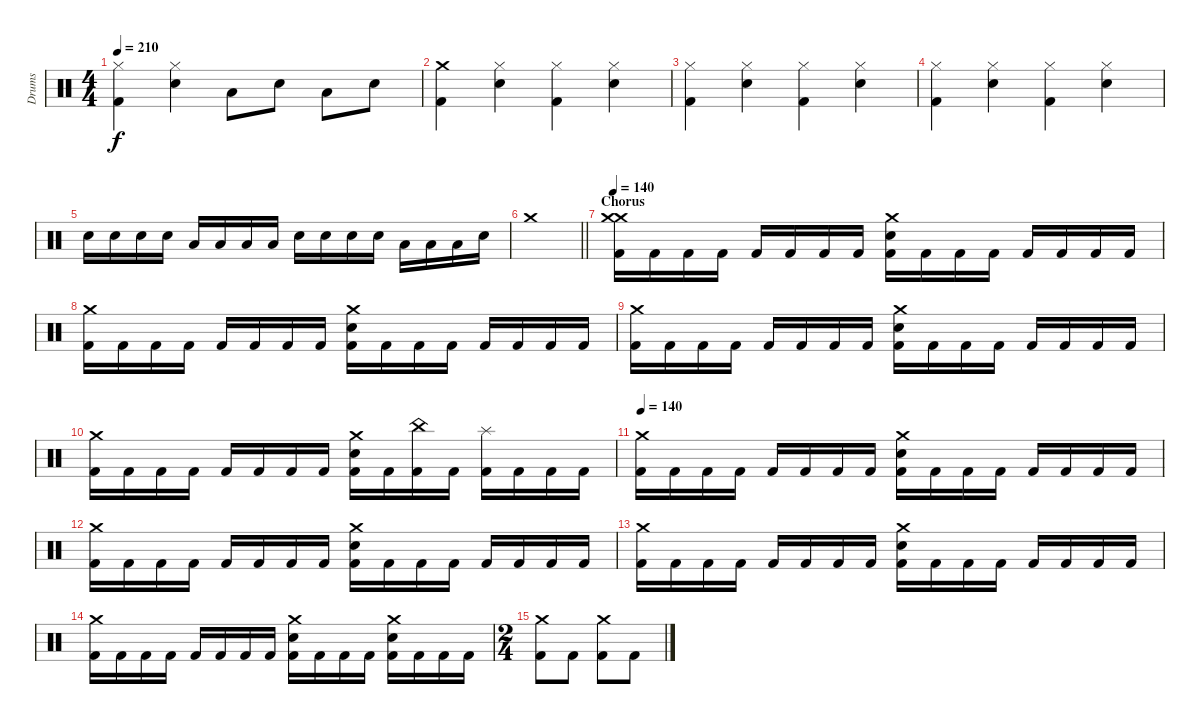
\track ("Drums" "Drums") {instrument percussion}
\staff {score}
\articulation defaults
\ts (4 4)
\tempo 210
\clef neutral
\ks c
("Hi-Hat (closed)" "Kick (hit) 2").4{dy f} ("Snare (hit) 2" "Hi-Hat (closed)").4 "Low Tom (hit)".8 "Snare (hit) 2".8 "Low Floor Tom (hit)".8 "Snare (hit) 2".8 |
("Kick (hit) 2" "Crash medium (hit)").4 ("Snare (hit) 2" "Hi-Hat (closed)").4 ("Hi-Hat (closed)" "Kick (hit) 2").4 ("Snare (hit) 2" "Hi-Hat (closed)").4 |
("Hi-Hat (closed)" "Kick (hit) 2").4 ("Snare (hit) 2" "Hi-Hat (closed)").4 ("Hi-Hat (closed)" "Kick (hit) 2").4 ("Snare (hit) 2" "Hi-Hat (closed)").4 |
("Hi-Hat (closed)" "Kick (hit) 2").4 ("Snare (hit) 2" "Hi-Hat (closed)").4 ("Hi-Hat (closed)" "Kick (hit) 2").4 ("Snare (hit) 2" "Hi-Hat (closed)").4 |
"Snare (hit) 2".16 "Snare (hit) 2".16 "Snare (hit) 2".16 "Snare (hit) 2".16 "Low Tom (hit)".16 "Low Tom (hit)".16 "Low Tom (hit)".16 "Low Tom (hit)".16 "Snare (hit) 2".16 "Snare (hit) 2".16 "Snare (hit) 2".16 "Snare (hit) 2".16 "Low Tom (hit)".16 "Low Tom (hit)".16 "Low Tom (hit)".16 "Snare (hit)".16 |
\barLineRight lightlight "Crash medium (hit)".1
|
\section ("" "Chorus")
\tempo 140
("Crash medium (hit)" "Crash medium (hit)" "Kick (hit) 2").16 "Kick (hit) 2".16 "Kick (hit) 2".16 "Kick (hit) 2".16 "Kick (hit) 2".16 "Kick (hit) 2".16 "Kick (hit) 2".16 "Kick (hit) 2".16 ("Crash medium (hit)" "Snare (hit) 2" "Kick (hit) 2").16 "Kick (hit) 2".16 "Kick (hit) 2".16 "Kick (hit) 2".16 "Kick (hit) 2".16 "Kick (hit) 2".16 "Kick (hit) 2".16 "Kick (hit) 2".16 |
("Crash medium (hit)" "Kick (hit) 2").16 "Kick (hit) 2".16 "Kick (hit) 2".16 "Kick (hit) 2".16 "Kick (hit) 2".16 "Kick (hit) 2".16 "Kick (hit) 2".16 "Kick (hit) 2".16 ("Crash medium (hit)" "Snare (hit) 2" "Kick (hit) 2").16 "Kick (hit) 2".16 "Kick (hit) 2".16 "Kick (hit) 2".16 "Kick (hit) 2".16 "Kick (hit) 2".16 "Kick (hit) 2".16 "Kick (hit) 2".16 |
("Crash medium (hit)" "Kick (hit) 2").16 "Kick (hit) 2".16 "Kick (hit) 2".16 "Kick (hit) 2".16 "Kick (hit) 2".16 "Kick (hit) 2".16 "Kick (hit) 2".16 "Kick (hit) 2".16 ("Crash medium (hit)" "Snare (hit) 2" "Kick (hit) 2").16 "Kick (hit) 2".16 "Kick (hit) 2".16 "Kick (hit) 2".16 "Kick (hit) 2".16 "Kick (hit) 2".16 "Kick (hit) 2".16 "Kick (hit) 2".16 |
("Crash medium (hit)" "Kick (hit) 2").16 "Kick (hit) 2".16 "Kick (hit) 2".16 "Kick (hit) 2".16 "Kick (hit) 2".16 "Kick (hit) 2".16 "Kick (hit) 2".16 "Kick (hit) 2".16 ("Crash medium (hit)" "Snare (hit) 2" "Kick (hit) 2").16 "Kick (hit) 2".16 ("China (hit)" "Kick (hit) 2").16 "Kick (hit) 2".16 ("Splash (hit)" "Kick (hit) 2").16 "Kick (hit) 2".16 "Kick (hit) 2".16 "Kick (hit) 2".16 |
\tempo 140
("Crash medium (hit)" "Kick (hit) 2").16 "Kick (hit) 2".16 "Kick (hit) 2".16 "Kick (hit) 2".16 "Kick (hit) 2".16 "Kick (hit) 2".16 "Kick (hit) 2".16 "Kick (hit) 2".16 ("Crash medium (hit)" "Snare (hit) 2" "Kick (hit) 2").16 "Kick (hit) 2".16 "Kick (hit) 2".16 "Kick (hit) 2".16 "Kick (hit) 2".16 "Kick (hit) 2".16 "Kick (hit) 2".16 "Kick (hit) 2".16 |
("Crash medium (hit)" "Kick (hit) 2").16 "Kick (hit) 2".16 "Kick (hit) 2".16 "Kick (hit) 2".16 "Kick (hit) 2".16 "Kick (hit) 2".16 "Kick (hit) 2".16 "Kick (hit) 2".16 ("Crash medium (hit)" "Snare (hit) 2" "Kick (hit) 2").16 "Kick (hit) 2".16 "Kick (hit) 2".16 "Kick (hit) 2".16 "Kick (hit) 2".16 "Kick (hit) 2".16 "Kick (hit) 2".16 "Kick (hit) 2".16 |
("Crash medium (hit)" "Kick (hit) 2").16 "Kick (hit) 2".16 "Kick (hit) 2".16 "Kick (hit) 2".16 "Kick (hit) 2".16 "Kick (hit) 2".16 "Kick (hit) 2".16 "Kick (hit) 2".16 ("Crash medium (hit)" "Snare (hit) 2" "Kick (hit) 2").16 "Kick (hit) 2".16 "Kick (hit) 2".16 "Kick (hit) 2".16 "Kick (hit) 2".16 "Kick (hit) 2".16 "Kick (hit) 2".16 "Kick (hit) 2".16 |
("Crash medium (hit)" "Kick (hit) 2").16 "Kick (hit) 2".16 "Kick (hit) 2".16 "Kick (hit) 2".16 "Kick (hit) 2".16 "Kick (hit) 2".16 "Kick (hit) 2".16 "Kick (hit) 2".16 ("Crash medium (hit)" "Snare (hit) 2" "Kick (hit) 2").16 "Kick (hit) 2".16 "Kick (hit) 2".16 "Kick (hit) 2".16 ("Crash medium (hit)" "Snare (hit) 2" "Kick (hit) 2").16 "Kick (hit) 2".16 "Kick (hit) 2".16 "Kick (hit) 2".16 |
\ts (2 4)
("Crash medium (hit)" "Kick (hit) 2").8 "Kick (hit) 2".8 ("Crash medium (hit)" "Kick (hit) 2").8 "Kick (hit) 2".8
